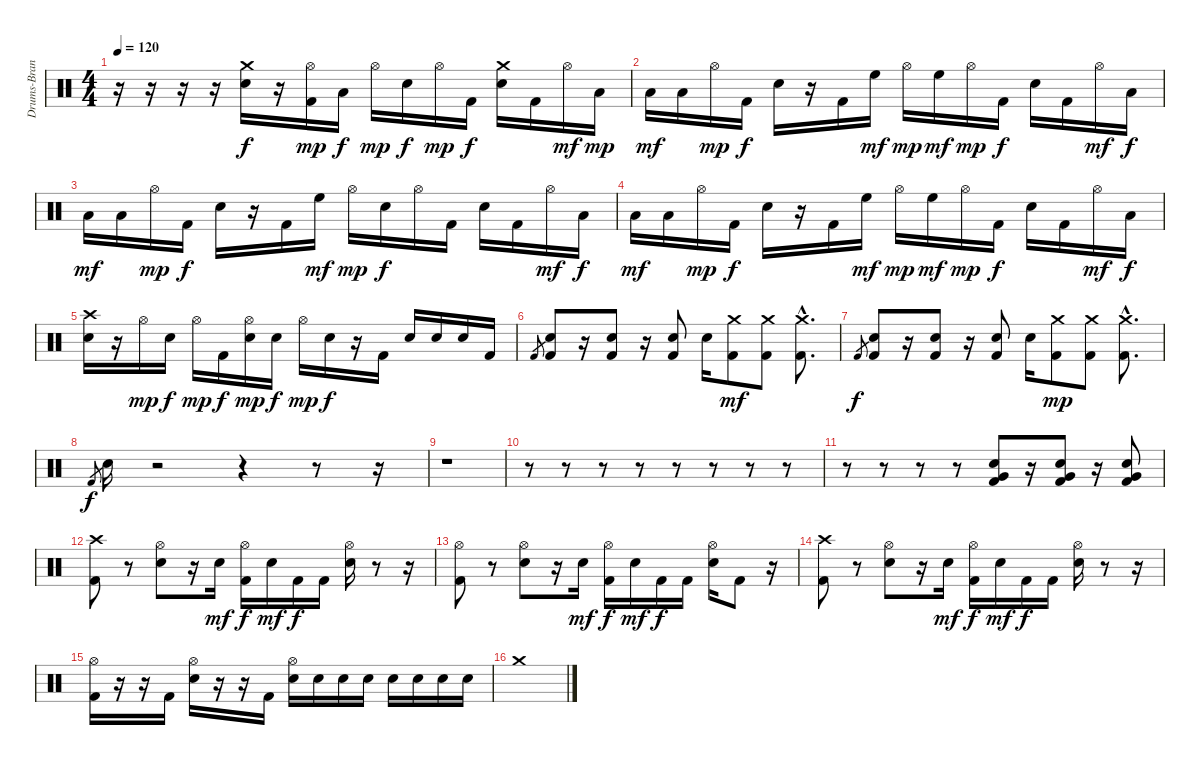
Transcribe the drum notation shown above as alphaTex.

\track ("Drums-Branden Steineckert" "Drums-Bran") {instrument percussion}
\staff {score}
\articulation defaults
\ts (4 4)
\tempo 120
\clef neutral
\ks c
r.16{dy mp} r.16 r.16 r.16 ("Crash medium (hit)" "Electric Snare (hit)").16{dy f} r.16 ("Hi-Hat (open)" "Kick (hit) 2").16{dy mp} "Low Tom (hit)".16{dy f} "Hi-Hat (open)".16{dy mp} "Electric Snare (hit)".16{dy f} "Hi-Hat (open)".16{dy mp} "Kick (hit) 2".16{dy f} ("Crash medium (hit)" "Electric Snare (hit)").16 "Kick (hit) 2".16 "Hi-Hat (open)".16{dy mf} "Low Floor Tom (hit)".16{dy mp} |
"Low Floor Tom (hit)".16{dy mf} "Low Floor Tom (hit)".16 "Hi-Hat (open)".16{dy mp} "Kick (hit) 2".16{dy f} "Electric Snare (hit)".16 r.16 "Kick (hit) 2".16 "High Floor Tom (hit)".16{dy mf} "Hi-Hat (open)".16{dy mp} "High Floor Tom (hit)".16{dy mf} "Hi-Hat (open)".16{dy mp} "Kick (hit) 2".16{dy f} "Electric Snare (hit)".16 "Kick (hit) 2".16 "Hi-Hat (open)".16{dy mf} "Low Floor Tom (hit)".16{dy f} |
"Low Floor Tom (hit)".16{dy mf} "Low Floor Tom (hit)".16 "Hi-Hat (open)".16{dy mp} "Kick (hit) 2".16{dy f} "Electric Snare (hit)".16 r.16 "Kick (hit) 2".16 "High Floor Tom (hit)".16{dy mf} "Hi-Hat (open)".16{dy mp} "Electric Snare (hit)".16{dy f} "Hi-Hat (open)".16 "Kick (hit) 2".16 "Electric Snare (hit)".16 "Kick (hit) 2".16 "Hi-Hat (open)".16{dy mf} "Low Floor Tom (hit)".16{dy f} |
"Low Floor Tom (hit)".16{dy mf} "Low Floor Tom (hit)".16 "Hi-Hat (open)".16{dy mp} "Kick (hit) 2".16{dy f} "Electric Snare (hit)".16 r.16 "Kick (hit) 2".16 "High Floor Tom (hit)".16{dy mf} "Hi-Hat (open)".16{dy mp} "High Floor Tom (hit)".16{dy mf} "Hi-Hat (open)".16{dy mp} "Kick (hit) 2".16{dy f} "Electric Snare (hit)".16 "Kick (hit) 2".16 "Hi-Hat (open)".16{dy mf} "Low Floor Tom (hit)".16{dy f} |
("Crash high (hit)" "Electric Snare (hit)").16 r.16 "Hi-Hat (open)".16{dy mp} "Electric Snare (hit)".16{dy f} "Hi-Hat (open)".16{dy mp} "Kick (hit) 2".16{dy f} ("Hi-Hat (open)" "Electric Snare (hit)").16{dy mp} "Electric Snare (hit)".16{dy f} "Hi-Hat (open)".16{dy mp} "Electric Snare (hit)".16{dy f} r.16 "Kick (hit) 2".16 "Electric Snare (hit)".16 "Electric Snare (hit)".16 "Electric Snare (hit)".16 "Kick (hit) 2".16 |
"Kick (hit) 2".8{gr} ("Kick (hit) 2" "Electric Snare (hit)").8 r.16 ("Kick (hit) 2" "Electric Snare (hit)").8 r.16 ("Kick (hit) 2" "Electric Snare (hit)").8 "Electric Snare (hit)".16 ("Kick (hit) 2" "Crash medium (hit)").8{dy mf} ("Kick (hit) 2" "Crash medium (hit)").8 ("Kick (hit) 2"{hac} "Crash medium (hit)"{hac}).8{d} |
"Kick (hit) 2".8{gr dy f} ("Kick (hit) 2" "Electric Snare (hit)").8 r.16 ("Kick (hit) 2" "Electric Snare (hit)").8 r.16 ("Kick (hit) 2" "Electric Snare (hit)").8 "Electric Snare (hit)".16 ("Kick (hit) 2" "Crash medium (hit)").8{dy mp} ("Kick (hit) 2" "Crash medium (hit)").8 ("Kick (hit) 2"{hac} "Crash medium (hit)"{hac}).8{d} |
"Kick (hit) 2".8{gr dy f} "Electric Snare (hit)".16 r.2 r.4 r.8 r.16 |
r.1 |
r.8 r.8 r.8 r.8 r.8 r.8 r.8 r.8 |
r.8 r.8 r.8 r.8 ("Very Low Tom (hit)" "Kick (hit) 2" "Electric Snare (hit)").8 r.16 ("Very Low Tom (hit)" "Kick (hit) 2" "Electric Snare (hit)").8 r.16 ("Very Low Tom (hit)" "Kick (hit) 2" "Electric Snare (hit)").8 |
("Crash high (hit)" "Kick (hit) 2").8 r.8 ("Hi-Hat (open)" "Electric Snare (hit)").8 r.16 "Electric Snare (hit)".16{dy mf} ("Hi-Hat (open)" "Kick (hit) 2").16{dy f} "Electric Snare (hit)".16{dy mf} "Kick (hit) 2".16{dy f} "Kick (hit) 2".16 ("Hi-Hat (open)" "Electric Snare (hit)").16 r.8 r.16 |
("Hi-Hat (open)" "Kick (hit) 2").8 r.8 ("Hi-Hat (open)" "Electric Snare (hit)").8 r.16 "Electric Snare (hit)".16{dy mf} ("Hi-Hat (open)" "Kick (hit) 2").16{dy f} "Electric Snare (hit)".16{dy mf} "Kick (hit) 2".16{dy f} "Kick (hit) 2".16 ("Hi-Hat (open)" "Electric Snare (hit)").16 "Kick (hit) 2".8 r.16 |
("Crash high (hit)" "Kick (hit) 2").8 r.8 ("Hi-Hat (open)" "Electric Snare (hit)").8 r.16 "Electric Snare (hit)".16{dy mf} ("Hi-Hat (open)" "Kick (hit) 2").16{dy f} "Electric Snare (hit)".16{dy mf} "Kick (hit) 2".16{dy f} "Kick (hit) 2".16 ("Hi-Hat (open)" "Electric Snare (hit)").16 r.8 r.16 |
("Hi-Hat (open)" "Kick (hit) 2").16 r.16 r.16 "Kick (hit) 2".16 ("Hi-Hat (open)" "Electric Snare (hit)").16 r.16 r.16 "Kick (hit) 2".16 ("Hi-Hat (open)" "Electric Snare (hit)").16 "Electric Snare (hit)".16 "Electric Snare (hit)".16 "Electric Snare (hit)".16 "Electric Snare (hit)".16 "Electric Snare (hit)".16 "Electric Snare (hit)".16 "Electric Snare (hit)".16 |
"Crash medium (hit)".1
